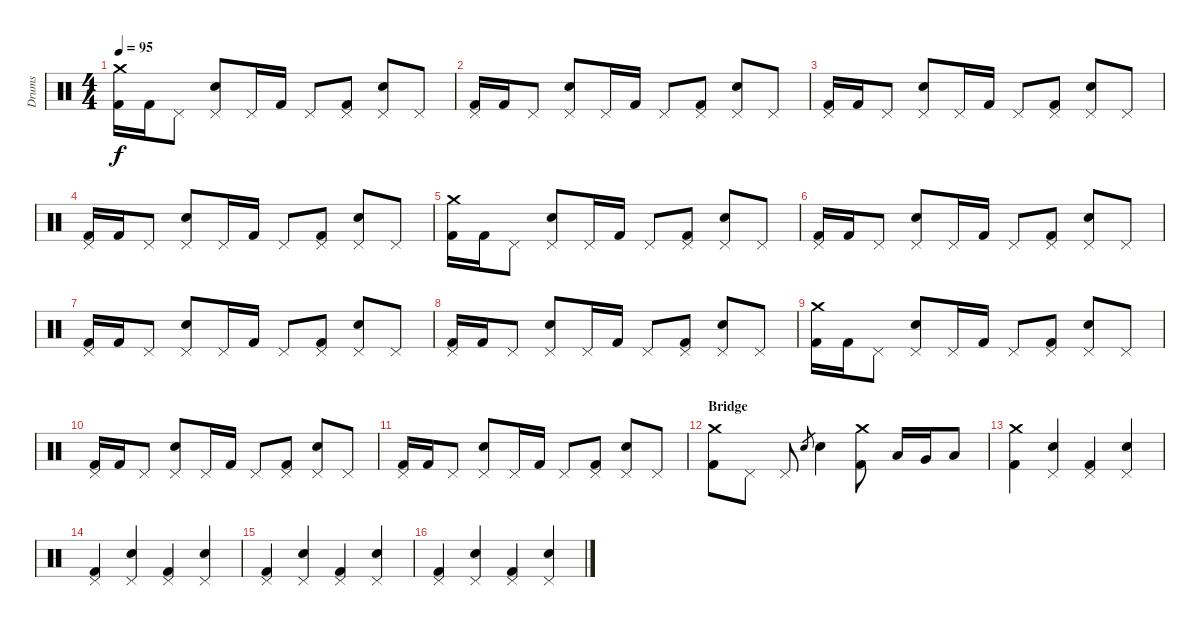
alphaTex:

\track ("Drums" "Drums") {instrument percussion}
\staff {score}
\articulation defaults
\ts (4 4)
\tempo 95
\clef neutral
\ks c
("Crash medium (hit)" "Kick (hit) 2").16{dy f} "Kick (hit) 2".16 "Pedal Hi-Hat (hit)".8 ("Pedal Hi-Hat (hit)" "Electric Snare (hit)").8 "Pedal Hi-Hat (hit)".16 "Kick (hit) 2".16 "Pedal Hi-Hat (hit)".8 ("Pedal Hi-Hat (hit)" "Kick (hit) 2").8 ("Pedal Hi-Hat (hit)" "Electric Snare (hit)").8 "Pedal Hi-Hat (hit)".8 |
("Pedal Hi-Hat (hit)" "Kick (hit) 2").16 "Kick (hit) 2".16 "Pedal Hi-Hat (hit)".8 ("Pedal Hi-Hat (hit)" "Electric Snare (hit)").8 "Pedal Hi-Hat (hit)".16 "Kick (hit) 2".16 "Pedal Hi-Hat (hit)".8 ("Pedal Hi-Hat (hit)" "Kick (hit) 2").8 ("Pedal Hi-Hat (hit)" "Electric Snare (hit)").8 "Pedal Hi-Hat (hit)".8 |
("Pedal Hi-Hat (hit)" "Kick (hit) 2").16 "Kick (hit) 2".16 "Pedal Hi-Hat (hit)".8 ("Pedal Hi-Hat (hit)" "Electric Snare (hit)").8 "Pedal Hi-Hat (hit)".16 "Kick (hit) 2".16 "Pedal Hi-Hat (hit)".8 ("Pedal Hi-Hat (hit)" "Kick (hit) 2").8 ("Pedal Hi-Hat (hit)" "Electric Snare (hit)").8 "Pedal Hi-Hat (hit)".8 |
("Pedal Hi-Hat (hit)" "Kick (hit) 2").16 "Kick (hit) 2".16 "Pedal Hi-Hat (hit)".8 ("Pedal Hi-Hat (hit)" "Electric Snare (hit)").8 "Pedal Hi-Hat (hit)".16 "Kick (hit) 2".16 "Pedal Hi-Hat (hit)".8 ("Pedal Hi-Hat (hit)" "Kick (hit) 2").8 ("Pedal Hi-Hat (hit)" "Electric Snare (hit)").8 "Pedal Hi-Hat (hit)".8 |
("Crash medium (hit)" "Kick (hit) 2").16 "Kick (hit) 2".16 "Pedal Hi-Hat (hit)".8 ("Pedal Hi-Hat (hit)" "Electric Snare (hit)").8 "Pedal Hi-Hat (hit)".16 "Kick (hit) 2".16 "Pedal Hi-Hat (hit)".8 ("Pedal Hi-Hat (hit)" "Kick (hit) 2").8 ("Pedal Hi-Hat (hit)" "Electric Snare (hit)").8 "Pedal Hi-Hat (hit)".8 |
("Pedal Hi-Hat (hit)" "Kick (hit) 2").16 "Kick (hit) 2".16 "Pedal Hi-Hat (hit)".8 ("Pedal Hi-Hat (hit)" "Electric Snare (hit)").8 "Pedal Hi-Hat (hit)".16 "Kick (hit) 2".16 "Pedal Hi-Hat (hit)".8 ("Pedal Hi-Hat (hit)" "Kick (hit) 2").8 ("Pedal Hi-Hat (hit)" "Electric Snare (hit)").8 "Pedal Hi-Hat (hit)".8 |
("Pedal Hi-Hat (hit)" "Kick (hit) 2").16 "Kick (hit) 2".16 "Pedal Hi-Hat (hit)".8 ("Pedal Hi-Hat (hit)" "Electric Snare (hit)").8 "Pedal Hi-Hat (hit)".16 "Kick (hit) 2".16 "Pedal Hi-Hat (hit)".8 ("Pedal Hi-Hat (hit)" "Kick (hit) 2").8 ("Pedal Hi-Hat (hit)" "Electric Snare (hit)").8 "Pedal Hi-Hat (hit)".8 |
("Pedal Hi-Hat (hit)" "Kick (hit) 2").16 "Kick (hit) 2".16 "Pedal Hi-Hat (hit)".8 ("Pedal Hi-Hat (hit)" "Electric Snare (hit)").8 "Pedal Hi-Hat (hit)".16 "Kick (hit) 2".16 "Pedal Hi-Hat (hit)".8 ("Pedal Hi-Hat (hit)" "Kick (hit) 2").8 ("Pedal Hi-Hat (hit)" "Electric Snare (hit)").8 "Pedal Hi-Hat (hit)".8 |
("Crash medium (hit)" "Kick (hit) 2").16 "Kick (hit) 2".16 "Pedal Hi-Hat (hit)".8 ("Pedal Hi-Hat (hit)" "Electric Snare (hit)").8 "Pedal Hi-Hat (hit)".16 "Kick (hit) 2".16 "Pedal Hi-Hat (hit)".8 ("Pedal Hi-Hat (hit)" "Kick (hit) 2").8 ("Pedal Hi-Hat (hit)" "Electric Snare (hit)").8 "Pedal Hi-Hat (hit)".8 |
("Pedal Hi-Hat (hit)" "Kick (hit) 2").16 "Kick (hit) 2".16 "Pedal Hi-Hat (hit)".8 ("Pedal Hi-Hat (hit)" "Electric Snare (hit)").8 "Pedal Hi-Hat (hit)".16 "Kick (hit) 2".16 "Pedal Hi-Hat (hit)".8 ("Pedal Hi-Hat (hit)" "Kick (hit) 2").8 ("Pedal Hi-Hat (hit)" "Electric Snare (hit)").8 "Pedal Hi-Hat (hit)".8 |
("Pedal Hi-Hat (hit)" "Kick (hit) 2").16 "Kick (hit) 2".16 "Pedal Hi-Hat (hit)".8 ("Pedal Hi-Hat (hit)" "Electric Snare (hit)").8 "Pedal Hi-Hat (hit)".16 "Kick (hit) 2".16 "Pedal Hi-Hat (hit)".8 ("Pedal Hi-Hat (hit)" "Kick (hit) 2").8 ("Pedal Hi-Hat (hit)" "Electric Snare (hit)").8 "Pedal Hi-Hat (hit)".8 |
\section ("" "Bridge")
("Crash medium (hit)" "Kick (hit) 2").8 "Pedal Hi-Hat (hit)".8 "Pedal Hi-Hat (hit)".8 "Electric Snare (hit)".8{gr} "Electric Snare (hit)".4 ("Crash medium (hit)" "Kick (hit) 2").8 "Low Tom (hit)".16 "Very Low Tom (hit)".16 "Low Floor Tom (hit)".8 |
("Crash medium (hit)" "Kick (hit) 2").4 ("Pedal Hi-Hat (hit)" "Electric Snare (hit)").4 ("Pedal Hi-Hat (hit)" "Kick (hit) 2").4 ("Pedal Hi-Hat (hit)" "Electric Snare (hit)").4 |
("Pedal Hi-Hat (hit)" "Kick (hit) 2").4 ("Pedal Hi-Hat (hit)" "Electric Snare (hit)").4 ("Pedal Hi-Hat (hit)" "Kick (hit) 2").4 ("Pedal Hi-Hat (hit)" "Electric Snare (hit)").4 |
("Pedal Hi-Hat (hit)" "Kick (hit) 2").4 ("Pedal Hi-Hat (hit)" "Electric Snare (hit)").4 ("Pedal Hi-Hat (hit)" "Kick (hit) 2").4 ("Pedal Hi-Hat (hit)" "Electric Snare (hit)").4 |
("Pedal Hi-Hat (hit)" "Kick (hit) 2").4 ("Pedal Hi-Hat (hit)" "Electric Snare (hit)").4 ("Pedal Hi-Hat (hit)" "Kick (hit) 2").4 ("Pedal Hi-Hat (hit)" "Electric Snare (hit)").4
